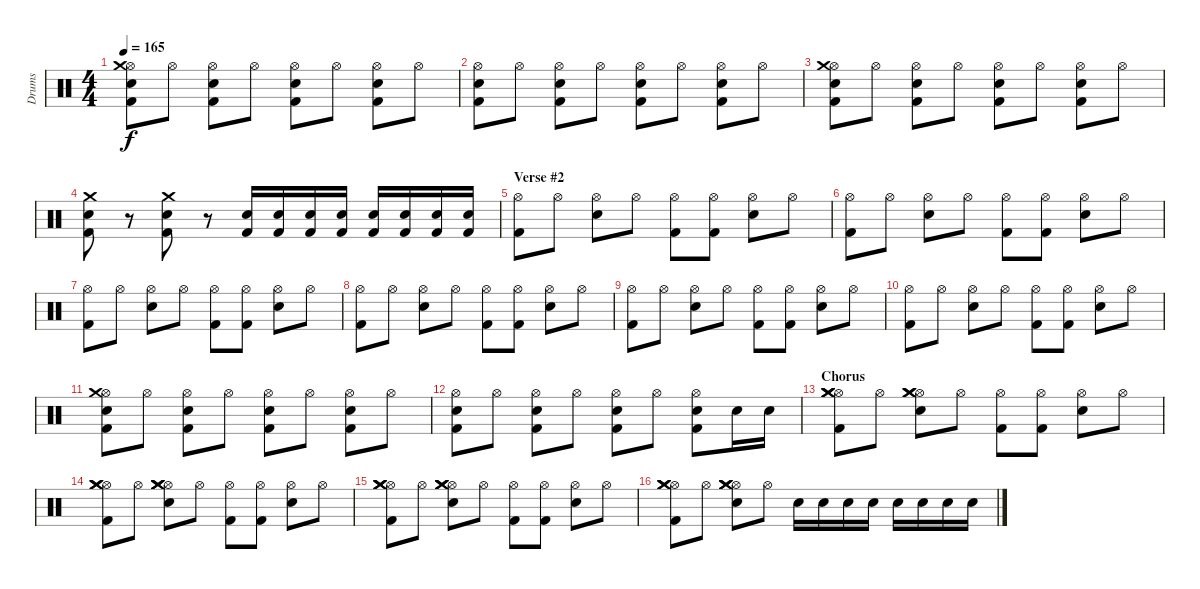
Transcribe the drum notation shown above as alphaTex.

\track ("Drums" "Drums") {instrument percussion}
\staff {score}
\articulation defaults
\ts (4 4)
\tempo 165
\clef neutral
\ks c
("Electric Snare (hit)" "Kick (hit) 2" "Hi-Hat (open)" "Crash medium (hit)").8{dy f} "Hi-Hat (open)".8 ("Electric Snare (hit)" "Kick (hit) 2" "Hi-Hat (open)").8 "Hi-Hat (open)".8 ("Electric Snare (hit)" "Kick (hit) 2" "Hi-Hat (open)").8 "Hi-Hat (open)".8 ("Electric Snare (hit)" "Kick (hit) 2" "Hi-Hat (open)").8 "Hi-Hat (open)".8 |
("Electric Snare (hit)" "Kick (hit) 2" "Hi-Hat (open)").8 "Hi-Hat (open)".8 ("Electric Snare (hit)" "Kick (hit) 2" "Hi-Hat (open)").8 "Hi-Hat (open)".8 ("Electric Snare (hit)" "Kick (hit) 2" "Hi-Hat (open)").8 "Hi-Hat (open)".8 ("Electric Snare (hit)" "Kick (hit) 2" "Hi-Hat (open)").8 "Hi-Hat (open)".8 |
("Electric Snare (hit)" "Kick (hit) 2" "Hi-Hat (open)" "Crash medium (hit)").8 "Hi-Hat (open)".8 ("Electric Snare (hit)" "Kick (hit) 2" "Hi-Hat (open)").8 "Hi-Hat (open)".8 ("Electric Snare (hit)" "Kick (hit) 2" "Hi-Hat (open)").8 "Hi-Hat (open)".8 ("Electric Snare (hit)" "Kick (hit) 2" "Hi-Hat (open)").8 "Hi-Hat (open)".8 |
("Electric Snare (hit)" "Kick (hit) 2" "Crash medium (hit)").8 r.8 ("Electric Snare (hit)" "Kick (hit) 2" "Crash medium (hit)").8 r.8 ("Electric Snare (hit)" "Kick (hit) 2").16 ("Electric Snare (hit)" "Kick (hit) 2").16 ("Electric Snare (hit)" "Kick (hit) 2").16 ("Electric Snare (hit)" "Kick (hit) 2").16 ("Electric Snare (hit)" "Kick (hit) 2").16 ("Electric Snare (hit)" "Kick (hit) 2").16 ("Electric Snare (hit)" "Kick (hit) 2").16 ("Electric Snare (hit)" "Kick (hit) 2").16 |
\section ("" "Verse #2")
("Kick (hit) 2" "Hi-Hat (open)").8 "Hi-Hat (open)".8 ("Electric Snare (hit)" "Hi-Hat (open)").8 "Hi-Hat (open)".8 ("Kick (hit) 2" "Hi-Hat (open)").8 ("Kick (hit) 2" "Hi-Hat (open)").8 ("Electric Snare (hit)" "Hi-Hat (open)").8 "Hi-Hat (open)".8 |
("Kick (hit) 2" "Hi-Hat (open)").8 "Hi-Hat (open)".8 ("Electric Snare (hit)" "Hi-Hat (open)").8 "Hi-Hat (open)".8 ("Kick (hit) 2" "Hi-Hat (open)").8 ("Kick (hit) 2" "Hi-Hat (open)").8 ("Electric Snare (hit)" "Hi-Hat (open)").8 "Hi-Hat (open)".8 |
("Kick (hit) 2" "Hi-Hat (open)").8 "Hi-Hat (open)".8 ("Electric Snare (hit)" "Hi-Hat (open)").8 "Hi-Hat (open)".8 ("Kick (hit) 2" "Hi-Hat (open)").8 ("Kick (hit) 2" "Hi-Hat (open)").8 ("Electric Snare (hit)" "Hi-Hat (open)").8 "Hi-Hat (open)".8 |
("Kick (hit) 2" "Hi-Hat (open)").8 "Hi-Hat (open)".8 ("Electric Snare (hit)" "Hi-Hat (open)").8 "Hi-Hat (open)".8 ("Kick (hit) 2" "Hi-Hat (open)").8 ("Kick (hit) 2" "Hi-Hat (open)").8 ("Electric Snare (hit)" "Hi-Hat (open)").8 "Hi-Hat (open)".8 |
("Kick (hit) 2" "Hi-Hat (open)").8 "Hi-Hat (open)".8 ("Electric Snare (hit)" "Hi-Hat (open)").8 "Hi-Hat (open)".8 ("Kick (hit) 2" "Hi-Hat (open)").8 ("Kick (hit) 2" "Hi-Hat (open)").8 ("Electric Snare (hit)" "Hi-Hat (open)").8 "Hi-Hat (open)".8 |
("Kick (hit) 2" "Hi-Hat (open)").8 "Hi-Hat (open)".8 ("Electric Snare (hit)" "Hi-Hat (open)").8 "Hi-Hat (open)".8 ("Kick (hit) 2" "Hi-Hat (open)").8 ("Kick (hit) 2" "Hi-Hat (open)").8 ("Electric Snare (hit)" "Hi-Hat (open)").8 "Hi-Hat (open)".8 |
("Electric Snare (hit)" "Kick (hit) 2" "Hi-Hat (open)" "Crash medium (hit)").8 "Hi-Hat (open)".8 ("Electric Snare (hit)" "Kick (hit) 2" "Hi-Hat (open)").8 "Hi-Hat (open)".8 ("Electric Snare (hit)" "Kick (hit) 2" "Hi-Hat (open)").8 "Hi-Hat (open)".8 ("Electric Snare (hit)" "Kick (hit) 2" "Hi-Hat (open)").8 "Hi-Hat (open)".8 |
("Electric Snare (hit)" "Kick (hit) 2" "Hi-Hat (open)").8 "Hi-Hat (open)".8 ("Electric Snare (hit)" "Kick (hit) 2" "Hi-Hat (open)").8 "Hi-Hat (open)".8 ("Electric Snare (hit)" "Kick (hit) 2" "Hi-Hat (open)").8 "Hi-Hat (open)".8 ("Electric Snare (hit)" "Kick (hit) 2" "Hi-Hat (open)").8 "Electric Snare (hit)".16 "Electric Snare (hit)".16 |
\section ("" "Chorus")
("Kick (hit) 2" "Hi-Hat (open)" "Crash medium (hit)" "Crash medium (hit)" "Crash medium (hit)").8 "Hi-Hat (open)".8 ("Electric Snare (hit)" "Hi-Hat (open)" "Crash medium (hit)" "Crash medium (hit)" "Crash medium (hit)").8 "Hi-Hat (open)".8 ("Kick (hit) 2" "Hi-Hat (open)").8 ("Kick (hit) 2" "Hi-Hat (open)").8 ("Electric Snare (hit)" "Hi-Hat (open)").8 "Hi-Hat (open)".8 |
("Kick (hit) 2" "Hi-Hat (open)" "Crash medium (hit)" "Crash medium (hit)" "Crash medium (hit)").8 "Hi-Hat (open)".8 ("Electric Snare (hit)" "Hi-Hat (open)" "Crash medium (hit)" "Crash medium (hit)" "Crash medium (hit)").8 "Hi-Hat (open)".8 ("Kick (hit) 2" "Hi-Hat (open)").8 ("Kick (hit) 2" "Hi-Hat (open)").8 ("Electric Snare (hit)" "Hi-Hat (open)").8 "Hi-Hat (open)".8 |
("Kick (hit) 2" "Hi-Hat (open)" "Crash medium (hit)" "Crash medium (hit)" "Crash medium (hit)").8 "Hi-Hat (open)".8 ("Electric Snare (hit)" "Hi-Hat (open)" "Crash medium (hit)" "Crash medium (hit)" "Crash medium (hit)").8 "Hi-Hat (open)".8 ("Kick (hit) 2" "Hi-Hat (open)").8 ("Kick (hit) 2" "Hi-Hat (open)").8 ("Electric Snare (hit)" "Hi-Hat (open)").8 "Hi-Hat (open)".8 |
("Kick (hit) 2" "Hi-Hat (open)" "Crash medium (hit)" "Crash medium (hit)" "Crash medium (hit)").8 "Hi-Hat (open)".8 ("Electric Snare (hit)" "Hi-Hat (open)" "Crash medium (hit)" "Crash medium (hit)" "Crash medium (hit)").8 "Hi-Hat (open)".8 "Electric Snare (hit)".16 "Electric Snare (hit)".16 "Electric Snare (hit)".16 "Electric Snare (hit)".16 "Electric Snare (hit)".16 "Electric Snare (hit)".16 "Electric Snare (hit)".16 "Electric Snare (hit)".16
